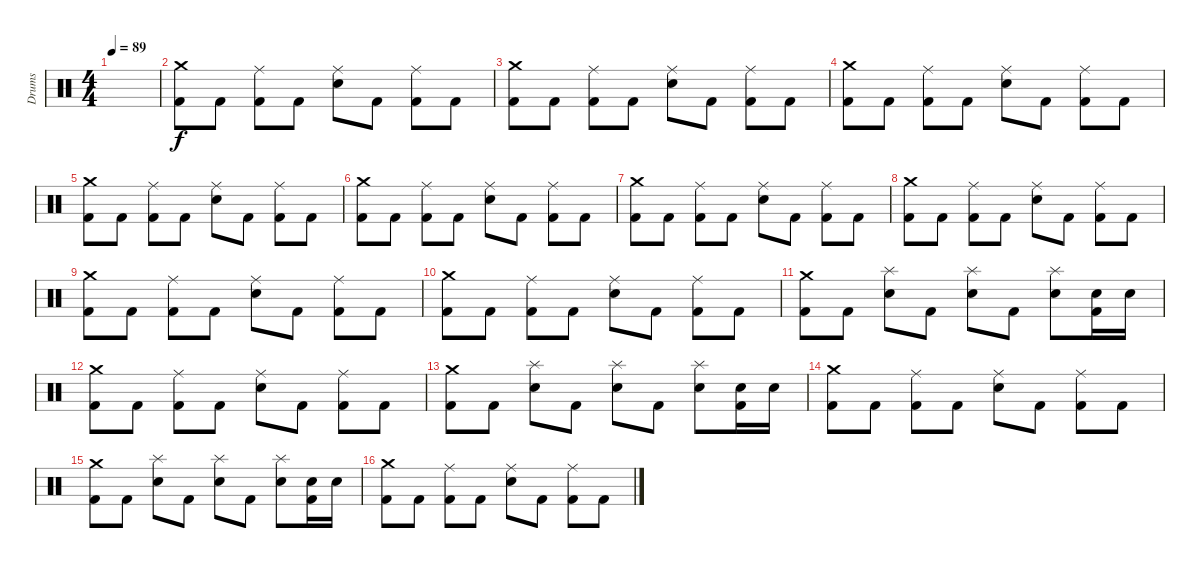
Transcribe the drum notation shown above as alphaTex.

\track ("Drums" "Drums") {instrument percussion}
\staff {score}
\articulation defaults
\ts (4 4)
\tempo 89
\clef neutral
\ks c
|
("Crash medium (hit)" "Kick (hit) 2").8 "Kick (hit) 2".8 ("Ride (middle)" "Kick (hit) 2").8 "Kick (hit) 2".8 ("Ride (middle)" "Snare (hit) 2").8 "Kick (hit) 2".8 ("Ride (middle)" "Kick (hit) 2").8 "Kick (hit) 2".8 |
("Crash medium (hit)" "Kick (hit) 2").8 "Kick (hit) 2".8 ("Ride (middle)" "Kick (hit) 2").8 "Kick (hit) 2".8 ("Ride (middle)" "Snare (hit) 2").8 "Kick (hit) 2".8 ("Ride (middle)" "Kick (hit) 2").8 "Kick (hit) 2".8 |
("Crash medium (hit)" "Kick (hit) 2").8 "Kick (hit) 2".8 ("Ride (middle)" "Kick (hit) 2").8 "Kick (hit) 2".8 ("Ride (middle)" "Snare (hit) 2").8 "Kick (hit) 2".8 ("Ride (middle)" "Kick (hit) 2").8 "Kick (hit) 2".8 |
("Crash medium (hit)" "Kick (hit) 2").8 "Kick (hit) 2".8 ("Ride (middle)" "Kick (hit) 2").8 "Kick (hit) 2".8 ("Ride (middle)" "Snare (hit) 2").8 "Kick (hit) 2".8 ("Ride (middle)" "Kick (hit) 2").8 "Kick (hit) 2".8 |
("Crash medium (hit)" "Kick (hit) 2").8 "Kick (hit) 2".8 ("Ride (middle)" "Kick (hit) 2").8 "Kick (hit) 2".8 ("Ride (middle)" "Snare (hit) 2").8 "Kick (hit) 2".8 ("Ride (middle)" "Kick (hit) 2").8 "Kick (hit) 2".8 |
("Crash medium (hit)" "Kick (hit) 2").8 "Kick (hit) 2".8 ("Ride (middle)" "Kick (hit) 2").8 "Kick (hit) 2".8 ("Ride (middle)" "Snare (hit) 2").8 "Kick (hit) 2".8 ("Ride (middle)" "Kick (hit) 2").8 "Kick (hit) 2".8 |
("Crash medium (hit)" "Kick (hit) 2").8 "Kick (hit) 2".8 ("Ride (middle)" "Kick (hit) 2").8 "Kick (hit) 2".8 ("Ride (middle)" "Snare (hit) 2").8 "Kick (hit) 2".8 ("Ride (middle)" "Kick (hit) 2").8 "Kick (hit) 2".8 |
("Crash medium (hit)" "Kick (hit) 2").8 "Kick (hit) 2".8 ("Ride (middle)" "Kick (hit) 2").8 "Kick (hit) 2".8 ("Ride (middle)" "Snare (hit) 2").8 "Kick (hit) 2".8 ("Ride (middle)" "Kick (hit) 2").8 "Kick (hit) 2".8 |
("Crash medium (hit)" "Kick (hit) 2").8 "Kick (hit) 2".8 ("Ride (middle)" "Kick (hit) 2").8 "Kick (hit) 2".8 ("Ride (middle)" "Snare (hit) 2").8 "Kick (hit) 2".8 ("Ride (middle)" "Kick (hit) 2").8 "Kick (hit) 2".8 |
("Crash medium (hit)" "Kick (hit) 2").8 "Kick (hit) 2".8 ("Splash (hit)" "Snare (hit) 2").8 "Kick (hit) 2".8 ("Splash (hit)" "Snare (hit) 2").8 "Kick (hit) 2".8 ("Splash (hit)" "Snare (hit) 2").8 ("Snare (hit) 2" "Kick (hit) 2").16 "Snare (hit) 2".16 |
("Crash medium (hit)" "Kick (hit) 2").8 "Kick (hit) 2".8 ("Ride (middle)" "Kick (hit) 2").8 "Kick (hit) 2".8 ("Ride (middle)" "Snare (hit) 2").8 "Kick (hit) 2".8 ("Ride (middle)" "Kick (hit) 2").8 "Kick (hit) 2".8 |
("Crash medium (hit)" "Kick (hit) 2").8 "Kick (hit) 2".8 ("Splash (hit)" "Snare (hit) 2").8 "Kick (hit) 2".8 ("Splash (hit)" "Snare (hit) 2").8 "Kick (hit) 2".8 ("Splash (hit)" "Snare (hit) 2").8 ("Snare (hit) 2" "Kick (hit) 2").16 "Snare (hit) 2".16 |
("Crash medium (hit)" "Kick (hit) 2").8 "Kick (hit) 2".8 ("Ride (middle)" "Kick (hit) 2").8 "Kick (hit) 2".8 ("Ride (middle)" "Snare (hit) 2").8 "Kick (hit) 2".8 ("Ride (middle)" "Kick (hit) 2").8 "Kick (hit) 2".8 |
("Crash medium (hit)" "Kick (hit) 2").8 "Kick (hit) 2".8 ("Splash (hit)" "Snare (hit) 2").8 "Kick (hit) 2".8 ("Splash (hit)" "Snare (hit) 2").8 "Kick (hit) 2".8 ("Splash (hit)" "Snare (hit) 2").8 ("Snare (hit) 2" "Kick (hit) 2").16 "Snare (hit) 2".16 |
("Crash medium (hit)" "Kick (hit) 2").8 "Kick (hit) 2".8 ("Ride (middle)" "Kick (hit) 2").8 "Kick (hit) 2".8 ("Ride (middle)" "Snare (hit) 2").8 "Kick (hit) 2".8 ("Ride (middle)" "Kick (hit) 2").8 "Kick (hit) 2".8
